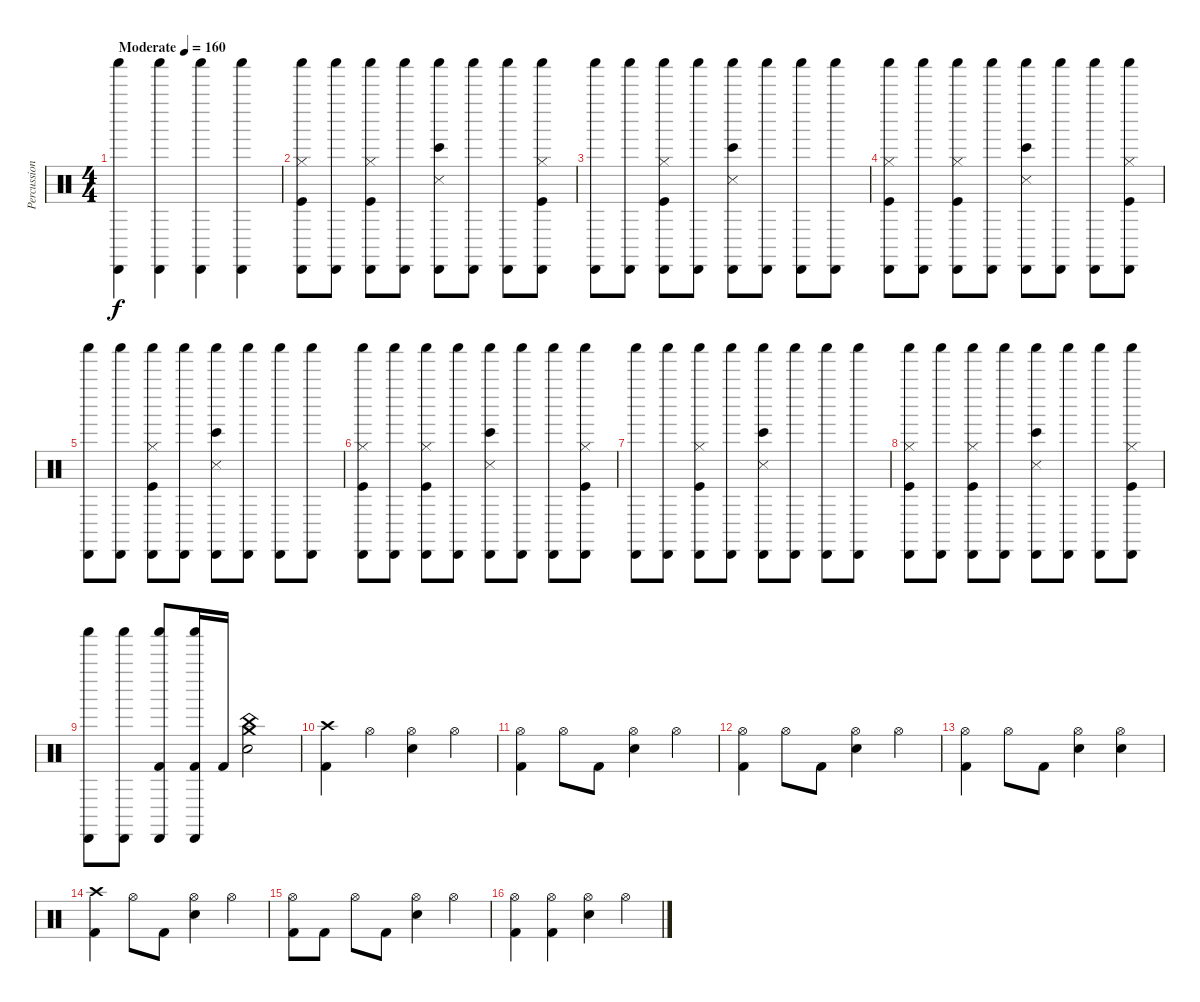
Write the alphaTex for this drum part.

\track ("Percussioni" "Percussion") {instrument percussion}
\staff {score}
\articulation defaults
\ts (4 4)
\tempo (160 "Moderate")
\clef neutral
\ks c
("Cabasa (hit)" "Shaker (hit)").4{dy f} ("Cabasa (hit)" "Shaker (hit)").4 ("Cabasa (hit)" "Shaker (hit)").4 ("Cabasa (hit)" "Shaker (hit)").4 |
("Cabasa (hit)" "Shaker (hit)" "Kick (hit)" "Hi-Hat (closed)").8 ("Cabasa (hit)" "Shaker (hit)").8 ("Cabasa (hit)" "Shaker (hit)" "Kick (hit)" "Hi-Hat (closed)").8 ("Cabasa (hit)" "Shaker (hit)").8 ("Cabasa (hit)" "Shaker (hit)" "Snare (side stick) 3" "Bongo High (hit)").8 ("Cabasa (hit)" "Shaker (hit)").8 ("Cabasa (hit)" "Shaker (hit)").8 ("Cabasa (hit)" "Shaker (hit)" "Kick (hit)" "Hi-Hat (closed)").8 |
("Cabasa (hit)" "Shaker (hit)").8 ("Cabasa (hit)" "Shaker (hit)").8 ("Cabasa (hit)" "Shaker (hit)" "Kick (hit)" "Hi-Hat (closed)").8 ("Cabasa (hit)" "Shaker (hit)").8 ("Cabasa (hit)" "Shaker (hit)" "Snare (side stick) 3" "Bongo High (hit)").8 ("Cabasa (hit)" "Shaker (hit)").8 ("Cabasa (hit)" "Shaker (hit)").8 ("Cabasa (hit)" "Shaker (hit)").8 |
("Cabasa (hit)" "Shaker (hit)" "Kick (hit)" "Hi-Hat (closed)").8 ("Cabasa (hit)" "Shaker (hit)").8 ("Cabasa (hit)" "Shaker (hit)" "Kick (hit)" "Hi-Hat (closed)").8 ("Cabasa (hit)" "Shaker (hit)").8 ("Cabasa (hit)" "Shaker (hit)" "Snare (side stick) 3" "Bongo High (hit)").8 ("Cabasa (hit)" "Shaker (hit)").8 ("Cabasa (hit)" "Shaker (hit)").8 ("Cabasa (hit)" "Shaker (hit)" "Kick (hit)" "Hi-Hat (closed)").8 |
("Cabasa (hit)" "Shaker (hit)").8 ("Cabasa (hit)" "Shaker (hit)").8 ("Cabasa (hit)" "Shaker (hit)" "Kick (hit)" "Hi-Hat (closed)").8 ("Cabasa (hit)" "Shaker (hit)").8 ("Cabasa (hit)" "Shaker (hit)" "Snare (side stick) 3" "Bongo High (hit)").8 ("Cabasa (hit)" "Shaker (hit)").8 ("Cabasa (hit)" "Shaker (hit)").8 ("Cabasa (hit)" "Shaker (hit)").8 |
("Cabasa (hit)" "Shaker (hit)" "Kick (hit)" "Hi-Hat (closed)").8 ("Cabasa (hit)" "Shaker (hit)").8 ("Cabasa (hit)" "Shaker (hit)" "Kick (hit)" "Hi-Hat (closed)").8 ("Cabasa (hit)" "Shaker (hit)").8 ("Cabasa (hit)" "Shaker (hit)" "Snare (side stick) 3" "Bongo High (hit)").8 ("Cabasa (hit)" "Shaker (hit)").8 ("Cabasa (hit)" "Shaker (hit)").8 ("Cabasa (hit)" "Shaker (hit)" "Kick (hit)" "Hi-Hat (closed)").8 |
("Cabasa (hit)" "Shaker (hit)").8 ("Cabasa (hit)" "Shaker (hit)").8 ("Cabasa (hit)" "Shaker (hit)" "Kick (hit)" "Hi-Hat (closed)").8 ("Cabasa (hit)" "Shaker (hit)").8 ("Cabasa (hit)" "Shaker (hit)" "Snare (side stick) 3" "Bongo High (hit)").8 ("Cabasa (hit)" "Shaker (hit)").8 ("Cabasa (hit)" "Shaker (hit)").8 ("Cabasa (hit)" "Shaker (hit)").8 |
("Cabasa (hit)" "Shaker (hit)" "Kick (hit)" "Hi-Hat (closed)").8 ("Cabasa (hit)" "Shaker (hit)").8 ("Cabasa (hit)" "Shaker (hit)" "Kick (hit)" "Hi-Hat (closed)").8 ("Cabasa (hit)" "Shaker (hit)").8 ("Cabasa (hit)" "Shaker (hit)" "Snare (side stick) 3" "Bongo High (hit)").8 ("Cabasa (hit)" "Shaker (hit)").8 ("Cabasa (hit)" "Shaker (hit)").8 ("Cabasa (hit)" "Shaker (hit)" "Kick (hit)" "Hi-Hat (closed)").8 |
("Cabasa (hit)" "Shaker (hit)").8 ("Cabasa (hit)" "Shaker (hit)").8 ("Cabasa (hit)" "Shaker (hit)" "Kick (hit) 2").8 ("Cabasa (hit)" "Shaker (hit)" "Kick (hit) 2").16 "Kick (hit) 2".16 ("China (hit)" "Crash medium (hit)" "Electric Snare (hit)").2 |
("Crash high (hit)" "Kick (hit) 2").4 "Hi-Hat (open)".4 ("Hi-Hat (open)" "Electric Snare (hit)").4 "Hi-Hat (open)".4 |
("Hi-Hat (open)" "Kick (hit) 2").4 "Hi-Hat (open)".8 "Kick (hit) 2".8 ("Hi-Hat (open)" "Electric Snare (hit)").4 "Hi-Hat (open)".4 |
("Hi-Hat (open)" "Kick (hit) 2").4 "Hi-Hat (open)".8 "Kick (hit) 2".8 ("Hi-Hat (open)" "Electric Snare (hit)").4 "Hi-Hat (open)".4 |
("Hi-Hat (open)" "Kick (hit) 2").4 "Hi-Hat (open)".8 "Kick (hit) 2".8 ("Hi-Hat (open)" "Electric Snare (hit)").4 ("Hi-Hat (open)" "Electric Snare (hit)").4 |
("Crash high (hit)" "Kick (hit) 2").4 "Hi-Hat (open)".8 "Kick (hit) 2".8 ("Hi-Hat (open)" "Electric Snare (hit)").4 "Hi-Hat (open)".4 |
("Hi-Hat (open)" "Kick (hit) 2").8 "Kick (hit) 2".8 "Hi-Hat (open)".8 "Kick (hit) 2".8 ("Hi-Hat (open)" "Electric Snare (hit)").4 "Hi-Hat (open)".4 |
("Hi-Hat (open)" "Kick (hit) 2").4 ("Hi-Hat (open)" "Kick (hit) 2").4 ("Hi-Hat (open)" "Electric Snare (hit)").4 "Hi-Hat (open)".4
